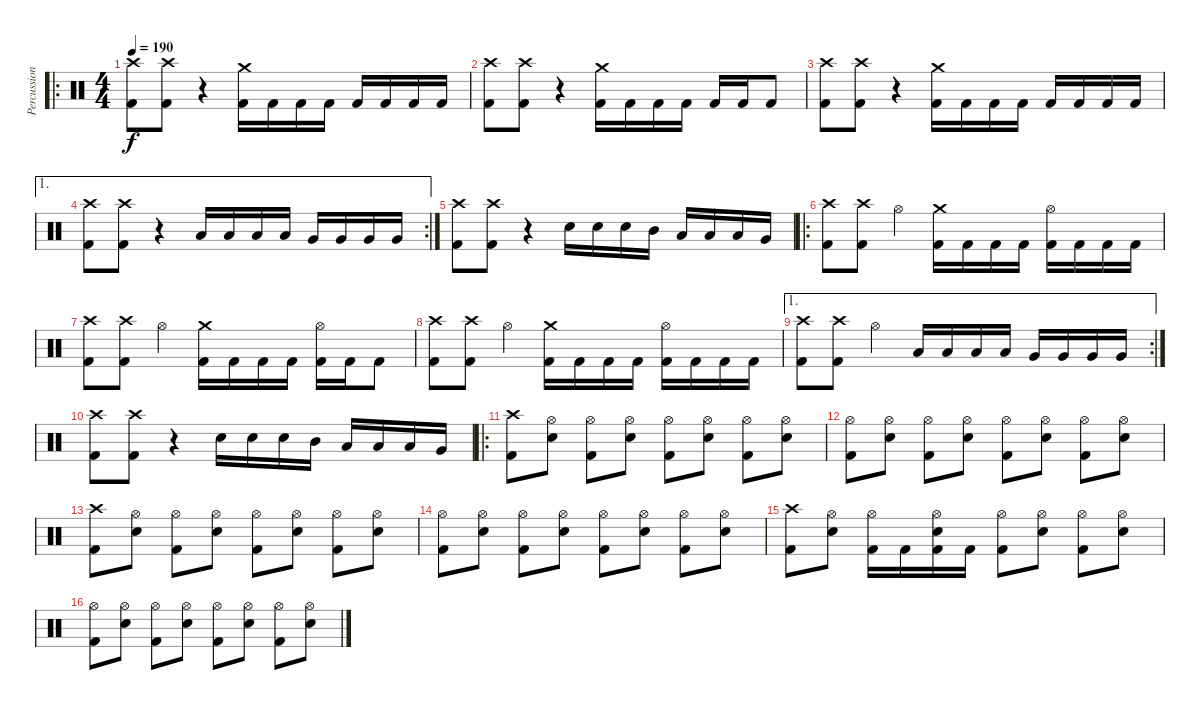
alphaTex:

\track ("Percussion" "Percussion") {instrument percussion}
\staff {score}
\articulation defaults
\ro
\ts (4 4)
\tempo 190
\clef neutral
\ks c
("Crash high (hit)" "Kick (hit) 2").8{dy f} ("Crash high (hit)" "Kick (hit) 2").8 r.4 ("Crash medium (hit)" "Kick (hit) 2").16 "Kick (hit) 2".16 "Kick (hit) 2".16 "Kick (hit) 2".16 "Kick (hit) 2".16 "Kick (hit) 2".16 "Kick (hit) 2".16 "Kick (hit) 2".16 |
("Crash high (hit)" "Kick (hit) 2").8 ("Crash high (hit)" "Kick (hit) 2").8 r.4 ("Crash medium (hit)" "Kick (hit) 2").16 "Kick (hit) 2".16 "Kick (hit) 2".16 "Kick (hit) 2".16 "Kick (hit) 2".16 "Kick (hit) 2".16 "Kick (hit) 2".8 |
("Crash high (hit)" "Kick (hit) 2").8 ("Crash high (hit)" "Kick (hit) 2").8 r.4 ("Crash medium (hit)" "Kick (hit) 2").16 "Kick (hit) 2".16 "Kick (hit) 2".16 "Kick (hit) 2".16 "Kick (hit) 2".16 "Kick (hit) 2".16 "Kick (hit) 2".16 "Kick (hit) 2".16 |
\ae 1
\rc 2
("Crash high (hit)" "Kick (hit) 2").8 ("Crash high (hit)" "Kick (hit) 2").8 r.4 "Low Tom (hit)".16 "Low Tom (hit)".16 "Low Tom (hit)".16 "Low Tom (hit)".16 "Very Low Tom (hit)".16 "Very Low Tom (hit)".16 "Very Low Tom (hit)".16 "Very Low Tom (hit)".16 |
("Crash high (hit)" "Kick (hit) 2").8 ("Crash high (hit)" "Kick (hit) 2").8 r.4 "Snare (hit) 2".16 "Snare (hit) 2".16 "Snare (hit) 2".16 "Mid Tom (hit)".16 "Low Tom (hit)".16 "Low Tom (hit)".16 "Low Tom (hit)".16 "Very Low Tom (hit)".16 |
\ro
("Crash high (hit)" "Kick (hit) 2").8 ("Crash high (hit)" "Kick (hit) 2").8 "Hi-Hat (open)".4 ("Crash medium (hit)" "Kick (hit) 2").16 "Kick (hit) 2".16 "Kick (hit) 2".16 "Kick (hit) 2".16 ("Hi-Hat (open)" "Kick (hit) 2").16 "Kick (hit) 2".16 "Kick (hit) 2".16 "Kick (hit) 2".16 |
("Crash high (hit)" "Kick (hit) 2").8 ("Crash high (hit)" "Kick (hit) 2").8 "Hi-Hat (open)".4 ("Crash medium (hit)" "Kick (hit) 2").16 "Kick (hit) 2".16 "Kick (hit) 2".16 "Kick (hit) 2".16 ("Hi-Hat (open)" "Kick (hit) 2").16 "Kick (hit) 2".16 "Kick (hit) 2".8 |
("Crash high (hit)" "Kick (hit) 2").8 ("Crash high (hit)" "Kick (hit) 2").8 "Hi-Hat (open)".4 ("Crash medium (hit)" "Kick (hit) 2").16 "Kick (hit) 2".16 "Kick (hit) 2".16 "Kick (hit) 2".16 ("Hi-Hat (open)" "Kick (hit) 2").16 "Kick (hit) 2".16 "Kick (hit) 2".16 "Kick (hit) 2".16 |
\ae 1
\rc 2
("Crash high (hit)" "Kick (hit) 2").8 ("Crash high (hit)" "Kick (hit) 2").8 "Hi-Hat (open)".4 "Low Tom (hit)".16 "Low Tom (hit)".16 "Low Tom (hit)".16 "Low Tom (hit)".16 "Very Low Tom (hit)".16 "Very Low Tom (hit)".16 "Very Low Tom (hit)".16 "Very Low Tom (hit)".16 |
("Crash high (hit)" "Kick (hit) 2").8 ("Crash high (hit)" "Kick (hit) 2").8 r.4 "Snare (hit) 2".16 "Snare (hit) 2".16 "Snare (hit) 2".16 "Mid Tom (hit)".16 "Low Tom (hit)".16 "Low Tom (hit)".16 "Low Tom (hit)".16 "Very Low Tom (hit)".16 |
\ro
("Crash high (hit)" "Kick (hit) 2").8 ("Hi-Hat (open)" "Snare (hit) 2").8 ("Hi-Hat (open)" "Kick (hit) 2").8 ("Hi-Hat (open)" "Snare (hit) 2").8 ("Hi-Hat (open)" "Kick (hit) 2").8 ("Hi-Hat (open)" "Snare (hit) 2").8 ("Hi-Hat (open)" "Kick (hit) 2").8 ("Hi-Hat (open)" "Snare (hit) 2").8 |
("Hi-Hat (open)" "Kick (hit) 2").8 ("Hi-Hat (open)" "Snare (hit) 2").8 ("Hi-Hat (open)" "Kick (hit) 2").8 ("Hi-Hat (open)" "Snare (hit) 2").8 ("Hi-Hat (open)" "Kick (hit) 2").8 ("Hi-Hat (open)" "Snare (hit) 2").8 ("Hi-Hat (open)" "Kick (hit) 2").8 ("Hi-Hat (open)" "Snare (hit) 2").8 |
("Crash high (hit)" "Kick (hit) 2").8 ("Hi-Hat (open)" "Snare (hit) 2").8 ("Hi-Hat (open)" "Kick (hit) 2").8 ("Hi-Hat (open)" "Snare (hit) 2").8 ("Hi-Hat (open)" "Kick (hit) 2").8 ("Hi-Hat (open)" "Snare (hit) 2").8 ("Hi-Hat (open)" "Kick (hit) 2").8 ("Hi-Hat (open)" "Snare (hit) 2").8 |
("Hi-Hat (open)" "Kick (hit) 2").8 ("Hi-Hat (open)" "Snare (hit) 2").8 ("Hi-Hat (open)" "Kick (hit) 2").8 ("Hi-Hat (open)" "Snare (hit) 2").8 ("Hi-Hat (open)" "Kick (hit) 2").8 ("Hi-Hat (open)" "Snare (hit) 2").8 ("Hi-Hat (open)" "Kick (hit) 2").8 ("Hi-Hat (open)" "Snare (hit) 2").8 |
("Crash high (hit)" "Kick (hit) 2").8 ("Hi-Hat (open)" "Snare (hit) 2").8 ("Hi-Hat (open)" "Kick (hit) 2").16 "Kick (hit) 2".16 ("Hi-Hat (open)" "Snare (hit) 2" "Kick (hit) 2").16 "Kick (hit) 2".16 ("Hi-Hat (open)" "Kick (hit) 2").8 ("Hi-Hat (open)" "Snare (hit) 2").8 ("Hi-Hat (open)" "Kick (hit) 2").8 ("Hi-Hat (open)" "Snare (hit) 2").8 |
("Hi-Hat (open)" "Kick (hit) 2").8 ("Hi-Hat (open)" "Snare (hit) 2").8 ("Hi-Hat (open)" "Kick (hit) 2").8 ("Hi-Hat (open)" "Snare (hit) 2").8 ("Hi-Hat (open)" "Kick (hit) 2").8 ("Hi-Hat (open)" "Snare (hit) 2").8 ("Hi-Hat (open)" "Kick (hit) 2").8 ("Hi-Hat (open)" "Snare (hit) 2").8
